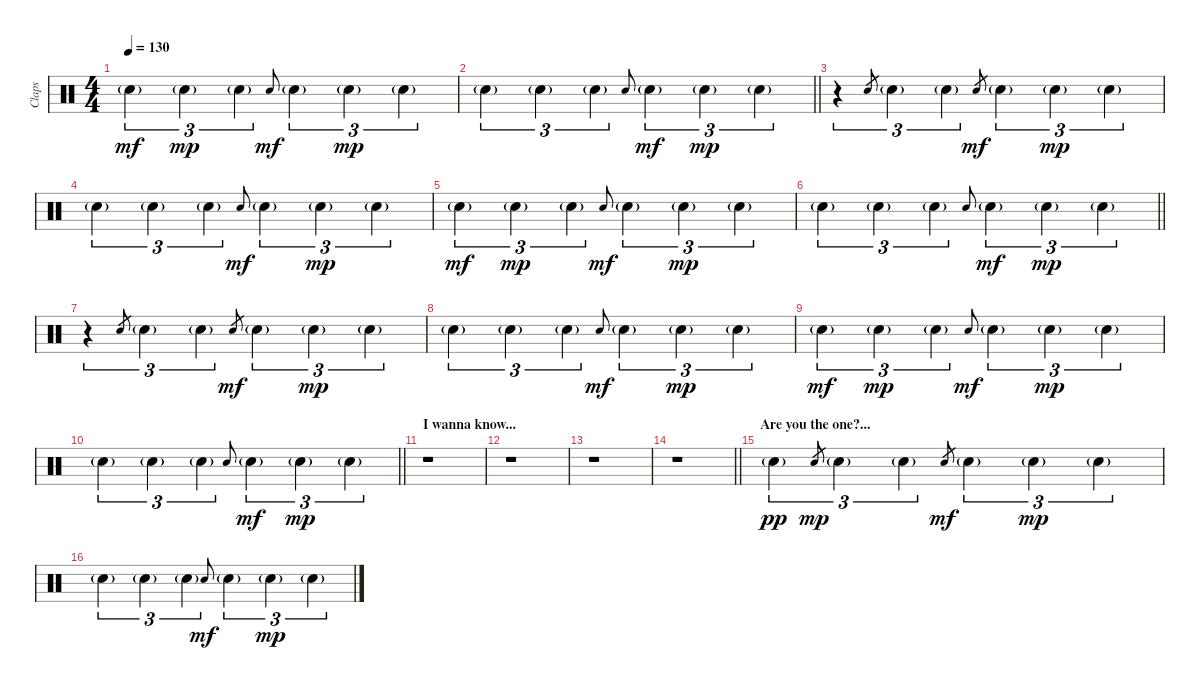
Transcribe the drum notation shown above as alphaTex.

\track ("Claps" "Claps") {instrument percussion}
\staff {score}
\articulation defaults
\ts (4 4)
\tempo 130
\clef neutral
\ks c "Hand Clap (hit)"{g}.4{tu (3 2) dy mf} "Hand Clap (hit)"{g}.4{tu (3 2) dy mp} "Hand Clap (hit)"{g}.4{tu (3 2)} "Hand Clap (hit)".8{gr onbeat dy mf} "Hand Clap (hit)"{g}.4{tu (3 2)} "Hand Clap (hit)"{g}.4{tu (3 2) dy mp} "Hand Clap (hit)"{g}.4{tu (3 2)}
|
\barLineRight lightlight "Hand Clap (hit)"{g}.4{tu (3 2)} "Hand Clap (hit)"{g}.4{tu (3 2)} "Hand Clap (hit)"{g}.4{tu (3 2)} "Hand Clap (hit)".8{gr onbeat} "Hand Clap (hit)"{g}.4{tu (3 2) dy mf} "Hand Clap (hit)"{g}.4{tu (3 2) dy mp} "Hand Clap (hit)"{g}.4{tu (3 2)}
|
r.4{tu (3 2)} "Hand Clap (hit)".8{gr} "Hand Clap (hit)"{g}.4{tu (3 2)} "Hand Clap (hit)"{g}.4{tu (3 2)} "Hand Clap (hit)".8{gr dy mf} "Hand Clap (hit)"{g}.4{tu (3 2)} "Hand Clap (hit)"{g}.4{tu (3 2) dy mp} "Hand Clap (hit)"{g}.4{tu (3 2)} |
"Hand Clap (hit)"{g}.4{tu (3 2)} "Hand Clap (hit)"{g}.4{tu (3 2)} "Hand Clap (hit)"{g}.4{tu (3 2)} "Hand Clap (hit)".8{gr onbeat dy mf} "Hand Clap (hit)"{g}.4{tu (3 2)} "Hand Clap (hit)"{g}.4{tu (3 2) dy mp} "Hand Clap (hit)"{g}.4{tu (3 2)} |
"Hand Clap (hit)"{g}.4{tu (3 2) dy mf} "Hand Clap (hit)"{g}.4{tu (3 2) dy mp} "Hand Clap (hit)"{g}.4{tu (3 2)} "Hand Clap (hit)".8{gr onbeat dy mf} "Hand Clap (hit)"{g}.4{tu (3 2)} "Hand Clap (hit)"{g}.4{tu (3 2) dy mp} "Hand Clap (hit)"{g}.4{tu (3 2)} |
\barLineRight lightlight "Hand Clap (hit)"{g}.4{tu (3 2)} "Hand Clap (hit)"{g}.4{tu (3 2)} "Hand Clap (hit)"{g}.4{tu (3 2)} "Hand Clap (hit)".8{gr onbeat} "Hand Clap (hit)"{g}.4{tu (3 2) dy mf} "Hand Clap (hit)"{g}.4{tu (3 2) dy mp} "Hand Clap (hit)"{g}.4{tu (3 2)}
|
r.4{tu (3 2)} "Hand Clap (hit)".8{gr} "Hand Clap (hit)"{g}.4{tu (3 2)} "Hand Clap (hit)"{g}.4{tu (3 2)} "Hand Clap (hit)".8{gr dy mf} "Hand Clap (hit)"{g}.4{tu (3 2)} "Hand Clap (hit)"{g}.4{tu (3 2) dy mp} "Hand Clap (hit)"{g}.4{tu (3 2)} |
"Hand Clap (hit)"{g}.4{tu (3 2)} "Hand Clap (hit)"{g}.4{tu (3 2)} "Hand Clap (hit)"{g}.4{tu (3 2)} "Hand Clap (hit)".8{gr onbeat dy mf} "Hand Clap (hit)"{g}.4{tu (3 2)} "Hand Clap (hit)"{g}.4{tu (3 2) dy mp} "Hand Clap (hit)"{g}.4{tu (3 2)} |
"Hand Clap (hit)"{g}.4{tu (3 2) dy mf} "Hand Clap (hit)"{g}.4{tu (3 2) dy mp} "Hand Clap (hit)"{g}.4{tu (3 2)} "Hand Clap (hit)".8{gr onbeat dy mf} "Hand Clap (hit)"{g}.4{tu (3 2)} "Hand Clap (hit)"{g}.4{tu (3 2) dy mp} "Hand Clap (hit)"{g}.4{tu (3 2)} |
\barLineRight lightlight "Hand Clap (hit)"{g}.4{tu (3 2)} "Hand Clap (hit)"{g}.4{tu (3 2)} "Hand Clap (hit)"{g}.4{tu (3 2)} "Hand Clap (hit)".8{gr onbeat} "Hand Clap (hit)"{g}.4{tu (3 2) dy mf} "Hand Clap (hit)"{g}.4{tu (3 2) dy mp} "Hand Clap (hit)"{g}.4{tu (3 2)}
|
\section ("" "I wanna know...")
r.1 |
r.1 |
r.1 |
\barLineRight lightlight
r.1 |
\section ("" "Are you the one?...")
"Hand Clap (hit)"{g}.4{tu (3 2) dy pp} "Hand Clap (hit)".8{gr dy mp} "Hand Clap (hit)"{g}.4{tu (3 2)} "Hand Clap (hit)"{g}.4{tu (3 2)} "Hand Clap (hit)".8{gr dy mf} "Hand Clap (hit)"{g}.4{tu (3 2)} "Hand Clap (hit)"{g}.4{tu (3 2) dy mp} "Hand Clap (hit)"{g}.4{tu (3 2)} |
"Hand Clap (hit)"{g}.4{tu (3 2)} "Hand Clap (hit)"{g}.4{tu (3 2)} "Hand Clap (hit)"{g}.4{tu (3 2)} "Hand Clap (hit)".8{gr onbeat dy mf} "Hand Clap (hit)"{g}.4{tu (3 2)} "Hand Clap (hit)"{g}.4{tu (3 2) dy mp} "Hand Clap (hit)"{g}.4{tu (3 2)}
